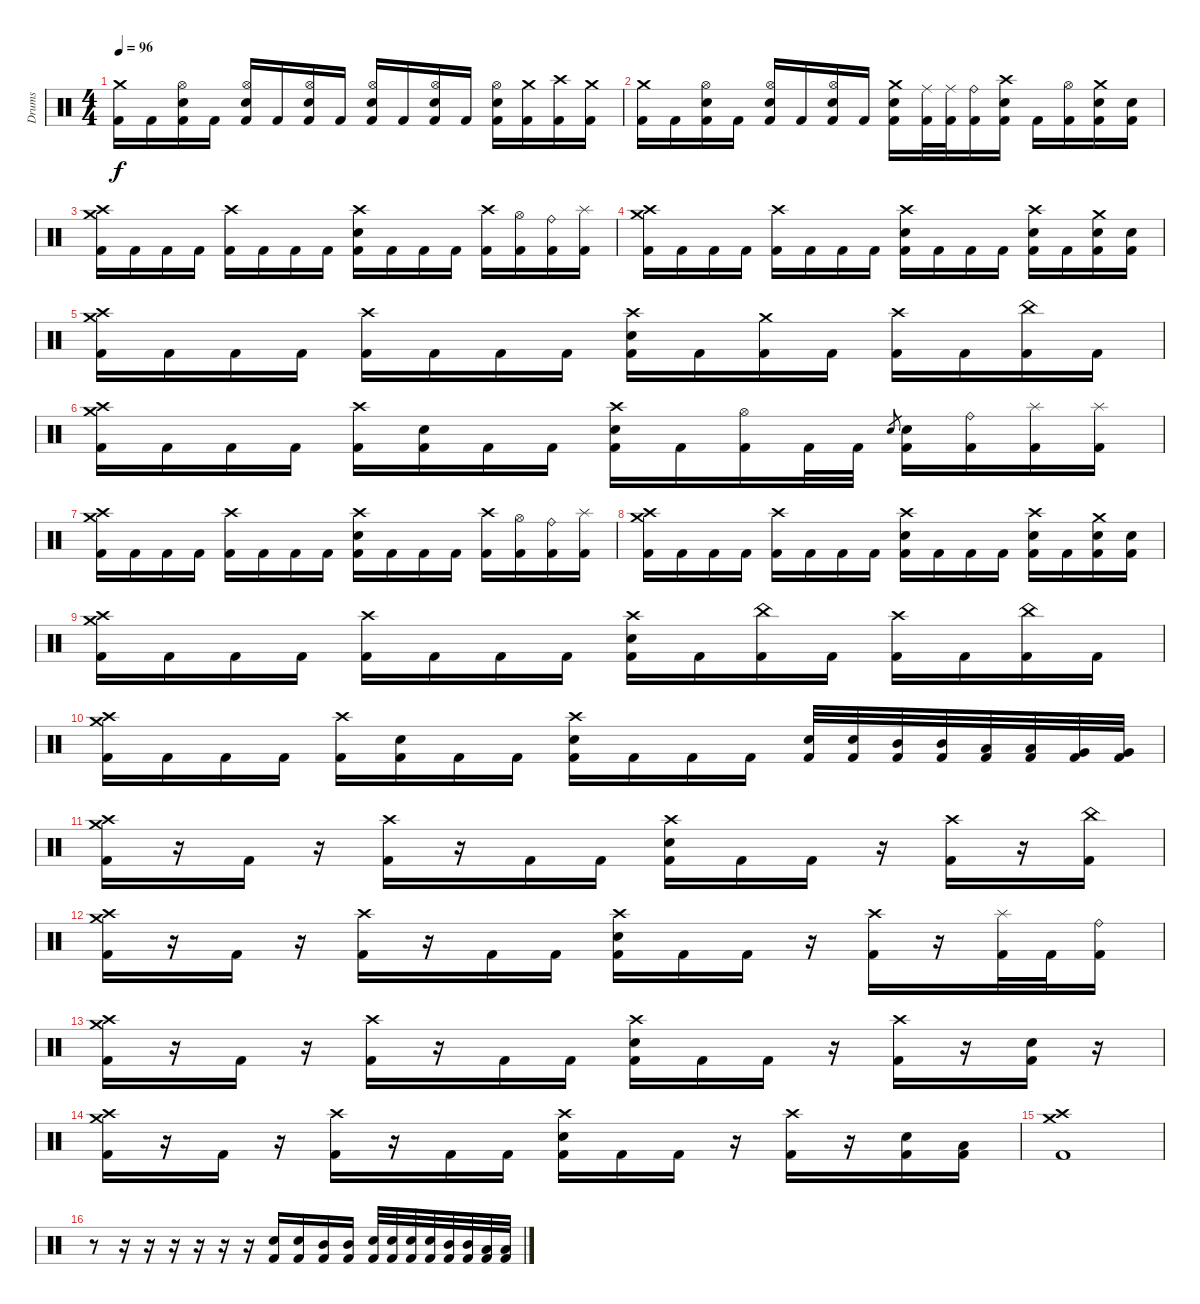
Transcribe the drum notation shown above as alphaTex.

\track ("Drums" "Drums") {instrument percussion}
\staff {score}
\articulation defaults
\ts (4 4)
\tempo 96
\clef neutral
\ks c
("Crash medium (hit)" "Kick (hit) 2").16{dy f} "Kick (hit) 2".16 ("Hi-Hat (open)" "Electric Snare (hit)" "Kick (hit) 2").16 "Kick (hit) 2".16 ("Hi-Hat (open)" "Electric Snare (hit)" "Kick (hit) 2").16 "Kick (hit) 2".16 ("Hi-Hat (open)" "Electric Snare (hit)" "Kick (hit) 2").16 "Kick (hit) 2".16 ("Hi-Hat (open)" "Electric Snare (hit)" "Kick (hit) 2").16 "Kick (hit) 2".16 ("Hi-Hat (open)" "Electric Snare (hit)" "Kick (hit) 2").16 "Kick (hit) 2".16 ("Hi-Hat (open)" "Electric Snare (hit)" "Kick (hit) 2").16 ("Crash medium (hit)" "Kick (hit) 2").16 ("Crash high (hit)" "Kick (hit) 2").16 ("Crash medium (hit)" "Kick (hit) 2").16 |
("Crash medium (hit)" "Kick (hit) 2").16 "Kick (hit) 2".16 ("Hi-Hat (open)" "Electric Snare (hit)" "Kick (hit) 2").16 "Kick (hit) 2".16 ("Hi-Hat (open)" "Electric Snare (hit)" "Kick (hit) 2").16 "Kick (hit) 2".16 ("Hi-Hat (open)" "Electric Snare (hit)" "Kick (hit) 2").16 "Kick (hit) 2".16 ("Crash medium (hit)" "Electric Snare (hit)" "Kick (hit) 2").16 ("Ride (middle)" "Kick (hit) 2").32 ("Ride (middle)" "Kick (hit) 2").32 ("Ride (bell)" "Kick (hit) 2").16 ("Crash high (hit)" "Electric Snare (hit)" "Kick (hit) 2").16 "Kick (hit) 2".16 ("Hi-Hat (open)" "Kick (hit) 2").16 ("Crash medium (hit)" "Electric Snare (hit)" "Kick (hit) 2").16 ("Electric Snare (hit)" "Kick (hit) 2").16 |
("Crash high (hit)" "Crash medium (hit)" "Kick (hit) 2").16 "Kick (hit) 2".16 "Kick (hit) 2".16 "Kick (hit) 2".16 ("Crash high (hit)" "Kick (hit) 2").16 "Kick (hit) 2".16 "Kick (hit) 2".16 "Kick (hit) 2".16 ("Crash high (hit)" "Electric Snare (hit)" "Kick (hit) 2").16 "Kick (hit) 2".16 "Kick (hit) 2".16 "Kick (hit) 2".16 ("Crash high (hit)" "Kick (hit) 2").16 ("Hi-Hat (open)" "Kick (hit) 2").16 ("Ride (bell)" "Kick (hit) 2").16 ("Splash (hit)" "Kick (hit) 2").16 |
("Crash high (hit)" "Crash medium (hit)" "Kick (hit) 2").16 "Kick (hit) 2".16 "Kick (hit) 2".16 "Kick (hit) 2".16 ("Crash high (hit)" "Kick (hit) 2").16 "Kick (hit) 2".16 "Kick (hit) 2".16 "Kick (hit) 2".16 ("Crash high (hit)" "Electric Snare (hit)" "Kick (hit) 2").16 "Kick (hit) 2".16 "Kick (hit) 2".16 "Kick (hit) 2".16 ("Crash high (hit)" "Electric Snare (hit)" "Kick (hit) 2").16 "Kick (hit) 2".16 ("Crash medium (hit)" "Electric Snare (hit)" "Kick (hit) 2").16 ("Electric Snare (hit)" "Kick (hit) 2").16 |
("Crash high (hit)" "Crash medium (hit)" "Kick (hit) 2").16 "Kick (hit) 2".16 "Kick (hit) 2".16 "Kick (hit) 2".16 ("Crash high (hit)" "Kick (hit) 2").16 "Kick (hit) 2".16 "Kick (hit) 2".16 "Kick (hit) 2".16 ("Crash high (hit)" "Electric Snare (hit)" "Kick (hit) 2").16 "Kick (hit) 2".16 ("Crash medium (hit)" "Kick (hit) 2").16 "Kick (hit) 2".16 ("Crash high (hit)" "Kick (hit) 2").16 "Kick (hit) 2".16 ("China (hit)" "Kick (hit) 2").16 "Kick (hit) 2".16 |
("Crash high (hit)" "Crash medium (hit)" "Kick (hit) 2").16 "Kick (hit) 2".16 "Kick (hit) 2".16 "Kick (hit) 2".16 ("Crash high (hit)" "Kick (hit) 2").16 ("Electric Snare (hit)" "Kick (hit) 2").16 "Kick (hit) 2".16 "Kick (hit) 2".16 ("Crash high (hit)" "Electric Snare (hit)" "Kick (hit) 2").16 "Kick (hit) 2".16 ("Hi-Hat (open)" "Kick (hit) 2").16 "Kick (hit) 2".32 "Kick (hit) 2".32 "Electric Snare (hit)".8{gr} ("Electric Snare (hit)" "Kick (hit) 2").16 ("Ride (bell)" "Kick (hit) 2").16 ("Splash (hit)" "Kick (hit) 2").16 ("Splash (hit)" "Kick (hit) 2").16 |
("Crash high (hit)" "Crash medium (hit)" "Kick (hit) 2").16 "Kick (hit) 2".16 "Kick (hit) 2".16 "Kick (hit) 2".16 ("Crash high (hit)" "Kick (hit) 2").16 "Kick (hit) 2".16 "Kick (hit) 2".16 "Kick (hit) 2".16 ("Crash high (hit)" "Electric Snare (hit)" "Kick (hit) 2").16 "Kick (hit) 2".16 "Kick (hit) 2".16 "Kick (hit) 2".16 ("Crash high (hit)" "Kick (hit) 2").16 ("Hi-Hat (open)" "Kick (hit) 2").16 ("Ride (bell)" "Kick (hit) 2").16 ("Splash (hit)" "Kick (hit) 2").16 |
("Crash high (hit)" "Crash medium (hit)" "Kick (hit) 2").16 "Kick (hit) 2".16 "Kick (hit) 2".16 "Kick (hit) 2".16 ("Crash high (hit)" "Kick (hit) 2").16 "Kick (hit) 2".16 "Kick (hit) 2".16 "Kick (hit) 2".16 ("Crash high (hit)" "Electric Snare (hit)" "Kick (hit) 2").16 "Kick (hit) 2".16 "Kick (hit) 2".16 "Kick (hit) 2".16 ("Crash high (hit)" "Electric Snare (hit)" "Kick (hit) 2").16 "Kick (hit) 2".16 ("Crash medium (hit)" "Electric Snare (hit)" "Kick (hit) 2").16 ("Electric Snare (hit)" "Kick (hit) 2").16 |
("Crash high (hit)" "Crash medium (hit)" "Kick (hit) 2").16 "Kick (hit) 2".16 "Kick (hit) 2".16 "Kick (hit) 2".16 ("Crash high (hit)" "Kick (hit) 2").16 "Kick (hit) 2".16 "Kick (hit) 2".16 "Kick (hit) 2".16 ("Crash high (hit)" "Electric Snare (hit)" "Kick (hit) 2").16 "Kick (hit) 2".16 ("China (hit)" "Kick (hit) 2").16 "Kick (hit) 2".16 ("Crash high (hit)" "Kick (hit) 2").16 "Kick (hit) 2".16 ("China (hit)" "Kick (hit) 2").16 "Kick (hit) 2".16 |
("Crash high (hit)" "Crash medium (hit)" "Kick (hit) 2").16 "Kick (hit) 2".16 "Kick (hit) 2".16 "Kick (hit) 2".16 ("Crash high (hit)" "Kick (hit) 2").16 ("Electric Snare (hit)" "Kick (hit) 2").16 "Kick (hit) 2".16 "Kick (hit) 2".16 ("Crash high (hit)" "Electric Snare (hit)" "Kick (hit) 2").16 "Kick (hit) 2".16 "Kick (hit) 2".16 "Kick (hit) 2".16 ("Electric Snare (hit)" "Kick (hit) 2").32 ("Electric Snare (hit)" "Kick (hit) 2").32 ("Mid Tom (hit)" "Kick (hit) 2").32 ("Mid Tom (hit)" "Kick (hit) 2").32 ("Low Tom (hit)" "Kick (hit) 2").32 ("Low Tom (hit)" "Kick (hit) 2").32 ("Very Low Tom (hit)" "Kick (hit) 2").32 ("Very Low Tom (hit)" "Kick (hit) 2").32 |
("Crash high (hit)" "Crash medium (hit)" "Kick (hit) 2").16 r.16 "Kick (hit) 2".16 r.16 ("Crash high (hit)" "Kick (hit) 2").16 r.16 "Kick (hit) 2".16 "Kick (hit) 2".16 ("Crash high (hit)" "Electric Snare (hit)" "Kick (hit) 2").16 "Kick (hit) 2".16 "Kick (hit) 2".16 r.16 ("Crash high (hit)" "Kick (hit) 2").16 r.16 ("China (hit)" "Kick (hit) 2").16 |
("Crash high (hit)" "Crash medium (hit)" "Kick (hit) 2").16 r.16 "Kick (hit) 2".16 r.16 ("Crash high (hit)" "Kick (hit) 2").16 r.16 "Kick (hit) 2".16 "Kick (hit) 2".16 ("Crash high (hit)" "Electric Snare (hit)" "Kick (hit) 2").16 "Kick (hit) 2".16 "Kick (hit) 2".16 r.16 ("Crash high (hit)" "Kick (hit) 2").16 r.16 ("Splash (hit)" "Kick (hit) 2").32 "Kick (hit) 2".32 ("Ride (bell)" "Kick (hit) 2").16 |
("Crash high (hit)" "Crash medium (hit)" "Kick (hit) 2").16 r.16 "Kick (hit) 2".16 r.16 ("Crash high (hit)" "Kick (hit) 2").16 r.16 "Kick (hit) 2".16 "Kick (hit) 2".16 ("Crash high (hit)" "Electric Snare (hit)" "Kick (hit) 2").16 "Kick (hit) 2".16 "Kick (hit) 2".16 r.16 ("Crash high (hit)" "Kick (hit) 2").16 r.16 ("Electric Snare (hit)" "Kick (hit) 2").16 r.16 |
("Crash high (hit)" "Crash medium (hit)" "Kick (hit) 2").16 r.16 "Kick (hit) 2".16 r.16 ("Crash high (hit)" "Kick (hit) 2").16 r.16 "Kick (hit) 2".16 "Kick (hit) 2".16 ("Crash high (hit)" "Electric Snare (hit)" "Kick (hit) 2").16 "Kick (hit) 2".16 "Kick (hit) 2".16 r.16 ("Crash high (hit)" "Kick (hit) 2").16 r.16 ("Electric Snare (hit)" "Kick (hit) 2").16 ("Low Tom (hit)" "Kick (hit) 2").16 |
("Crash medium (hit)" "Crash high (hit)" "Kick (hit) 2").1 |
r.8 r.16 r.16 r.16 r.16 r.16 r.16 ("Electric Snare (hit)" "Kick (hit) 2").16 ("Electric Snare (hit)" "Kick (hit) 2").16 ("Mid Tom (hit)" "Kick (hit) 2").16 ("Mid Tom (hit)" "Kick (hit) 2").16 ("Electric Snare (hit)" "Kick (hit) 2").32 ("Electric Snare (hit)" "Kick (hit) 2").32 ("Electric Snare (hit)" "Kick (hit) 2").32 ("Electric Snare (hit)" "Kick (hit) 2").32 ("Mid Tom (hit)" "Kick (hit) 2").32 ("Mid Tom (hit)" "Kick (hit) 2").32 ("Low Tom (hit)" "Kick (hit) 2").32 ("Low Tom (hit)" "Kick (hit) 2").32
